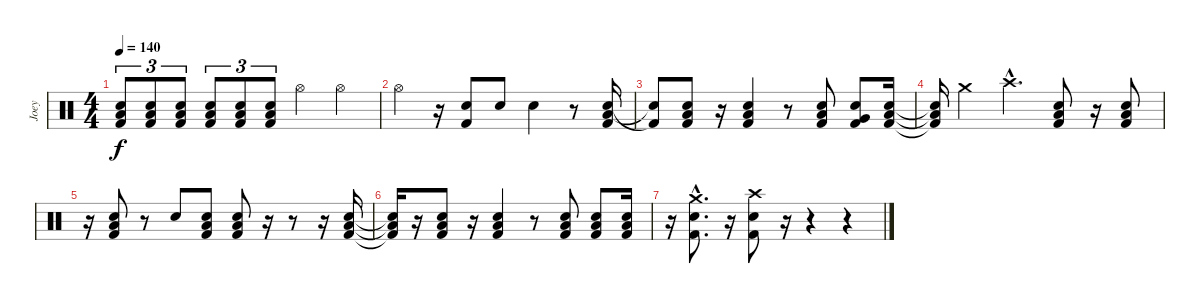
\track ("Joey" "Joey") {instrument percussion}
\staff {score}
\articulation defaults
\ts (4 4)
\tempo 140
\clef neutral
\ks c
("Electric Snare (hit)" "Low Floor Tom (hit)" "Kick (hit) 2").8{tu (3 2) dy f} ("Electric Snare (hit)" "Low Floor Tom (hit)" "Kick (hit) 2").8{tu (3 2)} ("Electric Snare (hit)" "Low Floor Tom (hit)" "Kick (hit) 2").8{tu (3 2)} ("Electric Snare (hit)" "Low Floor Tom (hit)" "Kick (hit) 2").8{tu (3 2)} ("Electric Snare (hit)" "Low Floor Tom (hit)" "Kick (hit) 2").8{tu (3 2)} ("Electric Snare (hit)" "Low Floor Tom (hit)" "Kick (hit) 2").8{tu (3 2)} "Hi-Hat (open)".4 "Hi-Hat (open)".4 |
"Hi-Hat (open)".4 r.16 ("Electric Snare (hit)" "Kick (hit) 2").8 "Electric Snare (hit)".8 "Electric Snare (hit)".4 r.8 ("Low Floor Tom (hit)" "Electric Snare (hit)" "Kick (hit) 2").16 |
("Electric Snare (hit)"{t} "Kick (hit) 2"{t}).8 ("Low Floor Tom (hit)" "Electric Snare (hit)" "Kick (hit) 2").8 r.16 ("Low Floor Tom (hit)" "Electric Snare (hit)" "Kick (hit) 2").4 r.8 ("Low Floor Tom (hit)" "Electric Snare (hit)" "Kick (hit) 2").8 ("Very Low Tom (hit)" "Electric Snare (hit)" "Kick (hit) 2").8 ("Low Floor Tom (hit)" "Electric Snare (hit)" "Kick (hit) 2").16 |
("Low Floor Tom (hit)"{t} "Electric Snare (hit)"{t} "Kick (hit) 2"{t}).16 "Crash medium (hit)".4 "Crash high (hit)"{hac}.4{d} ("Low Floor Tom (hit)" "Electric Snare (hit)" "Kick (hit) 2").8 r.16 ("Low Floor Tom (hit)" "Electric Snare (hit)" "Kick (hit) 2").8 |
r.16 ("Low Floor Tom (hit)" "Electric Snare (hit)" "Kick (hit) 2").8 r.8 "Electric Snare (hit)".8 ("Low Floor Tom (hit)" "Electric Snare (hit)" "Kick (hit) 2").8 ("Low Floor Tom (hit)" "Electric Snare (hit)" "Kick (hit) 2").8 r.16 r.8 r.16 ("Electric Snare (hit)" "Low Floor Tom (hit)" "Kick (hit) 2").16 |
("Electric Snare (hit)"{t} "Low Floor Tom (hit)"{t} "Kick (hit) 2"{t}).16 r.16 ("Electric Snare (hit)" "Low Floor Tom (hit)" "Kick (hit) 2").8 r.16 ("Electric Snare (hit)" "Low Floor Tom (hit)" "Kick (hit) 2").4 r.8 ("Low Floor Tom (hit)" "Electric Snare (hit)" "Kick (hit) 2").8 ("Low Floor Tom (hit)" "Electric Snare (hit)" "Kick (hit) 2").8 ("Electric Snare (hit)" "Low Floor Tom (hit)" "Kick (hit) 2").16 |
r.16 ("Crash medium (hit)"{hac} "Electric Snare (hit)"{hac} "Kick (hit) 2"{hac}).8{d} r.16 ("Crash high (hit)" "Electric Snare (hit)" "Kick (hit) 2").8 r.16 r.4 r.4
